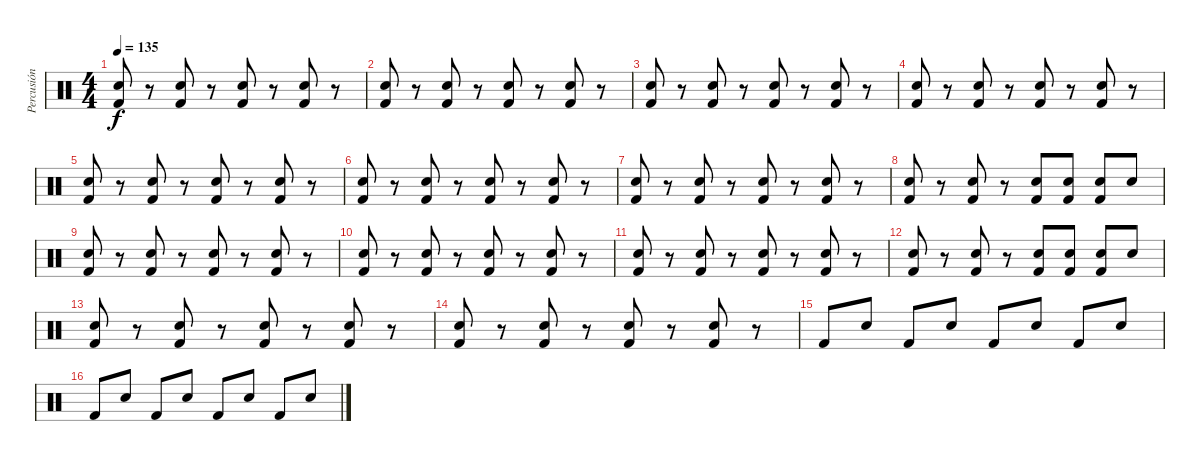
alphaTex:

\track ("Percusión" "Percusión") {instrument percussion}
\staff {score}
\articulation defaults
\ts (4 4)
\tempo 135
\clef neutral
\ks c
("Snare (hit) 2" "Kick (hit) 2").8{dy f} r.8 ("Snare (hit) 2" "Kick (hit) 2").8 r.8 ("Snare (hit) 2" "Kick (hit) 2").8 r.8 ("Snare (hit) 2" "Kick (hit) 2").8 r.8 |
("Snare (hit) 2" "Kick (hit) 2").8 r.8 ("Snare (hit) 2" "Kick (hit) 2").8 r.8 ("Snare (hit) 2" "Kick (hit) 2").8 r.8 ("Snare (hit) 2" "Kick (hit) 2").8 r.8 |
("Snare (hit) 2" "Kick (hit) 2").8 r.8 ("Snare (hit) 2" "Kick (hit) 2").8 r.8 ("Snare (hit) 2" "Kick (hit) 2").8 r.8 ("Snare (hit) 2" "Kick (hit) 2").8 r.8 |
("Snare (hit) 2" "Kick (hit) 2").8 r.8 ("Snare (hit) 2" "Kick (hit) 2").8 r.8 ("Snare (hit) 2" "Kick (hit) 2").8 r.8 ("Snare (hit) 2" "Kick (hit) 2").8 r.8 |
("Snare (hit) 2" "Kick (hit) 2").8 r.8 ("Snare (hit) 2" "Kick (hit) 2").8 r.8 ("Snare (hit) 2" "Kick (hit) 2").8 r.8 ("Snare (hit) 2" "Kick (hit) 2").8 r.8 |
("Snare (hit) 2" "Kick (hit) 2").8 r.8 ("Snare (hit) 2" "Kick (hit) 2").8 r.8 ("Snare (hit) 2" "Kick (hit) 2").8 r.8 ("Snare (hit) 2" "Kick (hit) 2").8 r.8 |
("Snare (hit) 2" "Kick (hit) 2").8 r.8 ("Snare (hit) 2" "Kick (hit) 2").8 r.8 ("Snare (hit) 2" "Kick (hit) 2").8 r.8 ("Snare (hit) 2" "Kick (hit) 2").8 r.8 |
("Snare (hit) 2" "Kick (hit) 2").8 r.8 ("Snare (hit) 2" "Kick (hit) 2").8 r.8 ("Snare (hit) 2" "Kick (hit) 2").8 ("Snare (hit) 2" "Kick (hit) 2").8 ("Snare (hit) 2" "Kick (hit) 2").8 "Snare (hit) 2".8 |
("Snare (hit) 2" "Kick (hit) 2").8 r.8 ("Snare (hit) 2" "Kick (hit) 2").8 r.8 ("Snare (hit) 2" "Kick (hit) 2").8 r.8 ("Snare (hit) 2" "Kick (hit) 2").8 r.8 |
("Snare (hit) 2" "Kick (hit) 2").8 r.8 ("Snare (hit) 2" "Kick (hit) 2").8 r.8 ("Snare (hit) 2" "Kick (hit) 2").8 r.8 ("Snare (hit) 2" "Kick (hit) 2").8 r.8 |
("Snare (hit) 2" "Kick (hit) 2").8 r.8 ("Snare (hit) 2" "Kick (hit) 2").8 r.8 ("Snare (hit) 2" "Kick (hit) 2").8 r.8 ("Snare (hit) 2" "Kick (hit) 2").8 r.8 |
("Snare (hit) 2" "Kick (hit) 2").8 r.8 ("Snare (hit) 2" "Kick (hit) 2").8 r.8 ("Snare (hit) 2" "Kick (hit) 2").8 ("Snare (hit) 2" "Kick (hit) 2").8 ("Snare (hit) 2" "Kick (hit) 2").8 "Snare (hit) 2".8 |
("Snare (hit) 2" "Kick (hit) 2").8 r.8 ("Snare (hit) 2" "Kick (hit) 2").8 r.8 ("Snare (hit) 2" "Kick (hit) 2").8 r.8 ("Snare (hit) 2" "Kick (hit) 2").8 r.8 |
("Snare (hit) 2" "Kick (hit) 2").8 r.8 ("Snare (hit) 2" "Kick (hit) 2").8 r.8 ("Snare (hit) 2" "Kick (hit) 2").8 r.8 ("Snare (hit) 2" "Kick (hit) 2").8 r.8 |
"Kick (hit) 2".8 "Snare (hit) 2".8 "Kick (hit) 2".8 "Snare (hit) 2".8 "Kick (hit) 2".8 "Snare (hit) 2".8 "Kick (hit) 2".8 "Snare (hit) 2".8 |
"Kick (hit) 2".8 "Snare (hit) 2".8 "Kick (hit) 2".8 "Snare (hit) 2".8 "Kick (hit) 2".8 "Snare (hit) 2".8 "Kick (hit) 2".8 "Snare (hit) 2".8
